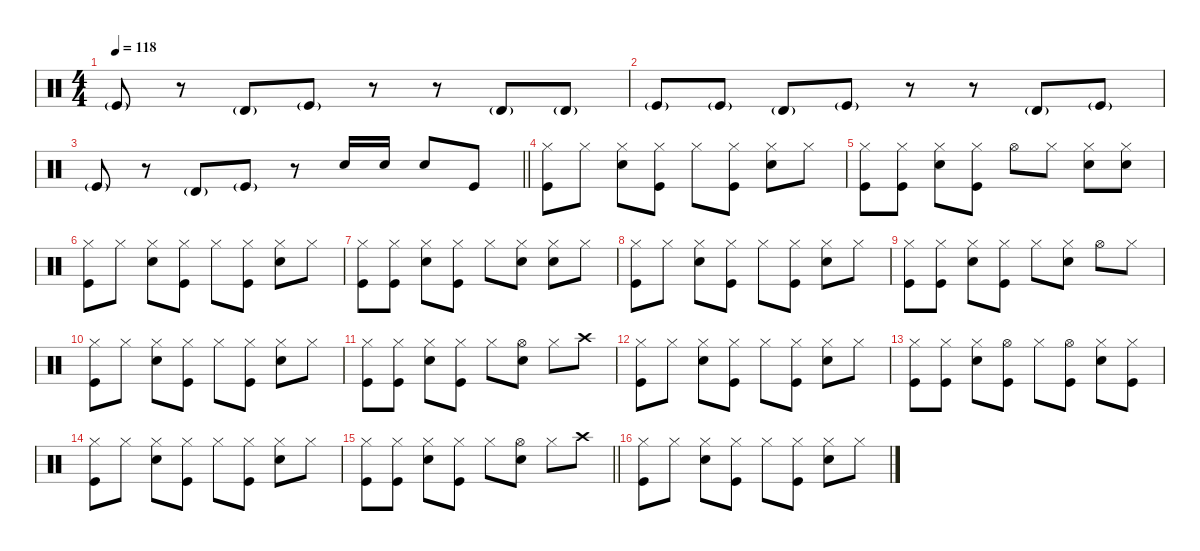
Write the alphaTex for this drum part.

\defaultSystemsLayout 4
\hideDynamics
\bracketExtendMode nobrackets
\singleTrackTrackNamePolicy hidden
\multiTrackTrackNamePolicy hidden
\firstSystemTrackNameMode fullname
\otherSystemsTrackNameOrientation horizontal
\track ("Drums" "drm.") {instrument percussion}
\staff {score}
\articulation defaults
\ts (4 4)
\tempo 118
\clef neutral
\ks c "Kick (hit)"{g}.8{dy mf beam Up}
r.8{beam Up} "Timbale high (hit)"{g}.8{beam Up} "Kick (hit)"{g}.8{beam Up} r.8{beam Up} r.8{beam Up} "Timbale high (hit)"{g}.8{beam Up} "Timbale high (hit)"{g}.8{beam Up} |
"Kick (hit)"{g}.8{beam Up} "Kick (hit)"{g}.8{beam Up} "Timbale high (hit)"{g}.8{beam Up} "Kick (hit)"{g}.8{beam Up} r.8{beam Up} r.8{beam Up} "Timbale high (hit)"{g}.8{beam Up} "Kick (hit)"{g}.8{beam Up} |
\barLineRight lightlight "Kick (hit)"{g}.8{beam Up}
r.8{beam Up} "Timbale high (hit)"{g}.8{beam Up} "Kick (hit)"{g}.8{beam Up} r.8{beam Up} "Snare (hit) 2".16{dy f beam Down} "Snare (hit) 2".16{beam Down} "Snare (hit) 2".8{beam Up} "Kick (hit)".8{beam Up} |
("Hi-Hat (closed)" "Kick (hit)").8{beam Down} "Hi-Hat (closed)".8{beam Down} ("Hi-Hat (closed)" "Snare (hit) 2").8{beam Down} ("Hi-Hat (closed)" "Kick (hit)").8{beam Down} "Hi-Hat (closed)".8{beam Down} ("Hi-Hat (closed)" "Kick (hit)").8{beam Down} ("Hi-Hat (closed)" "Snare (hit) 2").8{beam Down} "Hi-Hat (closed)".8{beam Down} |
("Hi-Hat (closed)" "Kick (hit)").8{beam Down} ("Hi-Hat (closed)" "Kick (hit)").8{beam Down} ("Hi-Hat (closed)" "Snare (hit) 2").8{beam Down} ("Hi-Hat (closed)" "Kick (hit)").8{beam Down} "Hi-Hat (open)".8{beam Down} "Hi-Hat (closed)".8{beam Down} ("Hi-Hat (closed)" "Snare (hit) 2").8{beam Down} ("Hi-Hat (closed)" "Snare (hit) 2").8{beam Down} |
("Hi-Hat (closed)" "Kick (hit)").8{beam Down} "Hi-Hat (closed)".8{beam Down} ("Hi-Hat (closed)" "Snare (hit) 2").8{beam Down} ("Hi-Hat (closed)" "Kick (hit)").8{beam Down} "Hi-Hat (closed)".8{beam Down} ("Hi-Hat (closed)" "Kick (hit)").8{beam Down} ("Hi-Hat (closed)" "Snare (hit) 2").8{beam Down} "Hi-Hat (closed)".8{beam Down} |
("Hi-Hat (closed)" "Kick (hit)").8{beam Down} ("Hi-Hat (closed)" "Kick (hit)").8{beam Down} ("Hi-Hat (closed)" "Snare (hit) 2").8{beam Down} ("Hi-Hat (closed)" "Kick (hit)").8{beam Down} "Hi-Hat (closed)".8{beam Down} ("Hi-Hat (closed)" "Snare (hit) 2").8{beam Down} ("Hi-Hat (closed)" "Snare (hit) 2").8{beam Down} "Hi-Hat (closed)".8{beam Down} |
("Hi-Hat (closed)" "Kick (hit)").8{beam Down} "Hi-Hat (closed)".8{beam Down} ("Hi-Hat (closed)" "Snare (hit) 2").8{beam Down} ("Hi-Hat (closed)" "Kick (hit)").8{beam Down} "Hi-Hat (closed)".8{beam Down} ("Hi-Hat (closed)" "Kick (hit)").8{beam Down} ("Hi-Hat (closed)" "Snare (hit) 2").8{beam Down} "Hi-Hat (closed)".8{beam Down} |
("Hi-Hat (closed)" "Kick (hit)").8{beam Down} ("Hi-Hat (closed)" "Kick (hit)").8{beam Down} ("Hi-Hat (closed)" "Snare (hit) 2").8{beam Down} ("Hi-Hat (closed)" "Kick (hit)").8{beam Down} "Hi-Hat (closed)".8{beam Down} ("Hi-Hat (closed)" "Snare (hit) 2").8{beam Down} "Hi-Hat (open)".8{beam Down} "Hi-Hat (closed)".8{beam Down} |
("Hi-Hat (closed)" "Kick (hit)").8{beam Down} "Hi-Hat (closed)".8{beam Down} ("Hi-Hat (closed)" "Snare (hit) 2").8{beam Down} ("Hi-Hat (closed)" "Kick (hit)").8{beam Down} "Hi-Hat (closed)".8{beam Down} ("Hi-Hat (closed)" "Kick (hit)").8{beam Down} ("Hi-Hat (closed)" "Snare (hit) 2").8{beam Down} "Hi-Hat (closed)".8{beam Down} |
("Hi-Hat (closed)" "Kick (hit)").8{beam Down} ("Hi-Hat (closed)" "Kick (hit)").8{beam Down} ("Hi-Hat (closed)" "Snare (hit) 2").8{beam Down} ("Hi-Hat (closed)" "Kick (hit)").8{beam Down} "Hi-Hat (closed)".8{beam Down} ("Hi-Hat (open)" "Snare (hit) 2").8{beam Down} "Hi-Hat (closed)".8{beam Down} "Crash high (hit)".8{beam Down} |
("Hi-Hat (closed)" "Kick (hit)").8{beam Down} "Hi-Hat (closed)".8{beam Down} ("Hi-Hat (closed)" "Snare (hit) 2").8{beam Down} ("Hi-Hat (closed)" "Kick (hit)").8{beam Down} "Hi-Hat (closed)".8{beam Down} ("Hi-Hat (closed)" "Kick (hit)").8{beam Down} ("Hi-Hat (closed)" "Snare (hit) 2").8{beam Down} "Hi-Hat (closed)".8{beam Down} |
("Hi-Hat (closed)" "Kick (hit)").8{beam Down} ("Hi-Hat (closed)" "Kick (hit)").8{beam Down} ("Hi-Hat (closed)" "Snare (hit) 2").8{beam Down} ("Hi-Hat (open)" "Kick (hit)").8{beam Down} "Hi-Hat (closed)".8{beam Down} ("Hi-Hat (open)" "Kick (hit)").8{beam Down} ("Hi-Hat (closed)" "Snare (hit) 2").8{beam Down} ("Hi-Hat (closed)" "Kick (hit)").8{beam Down} |
("Hi-Hat (closed)" "Kick (hit)").8{beam Down} "Hi-Hat (closed)".8{beam Down} ("Hi-Hat (closed)" "Snare (hit) 2").8{beam Down} ("Hi-Hat (closed)" "Kick (hit)").8{beam Down} "Hi-Hat (closed)".8{beam Down} ("Hi-Hat (closed)" "Kick (hit)").8{beam Down} ("Hi-Hat (closed)" "Snare (hit) 2").8{beam Down} "Hi-Hat (closed)".8{beam Down} |
\barLineRight lightlight
("Hi-Hat (closed)" "Kick (hit)").8{beam Down} ("Hi-Hat (closed)" "Kick (hit)").8{beam Down} ("Hi-Hat (closed)" "Snare (hit) 2").8{beam Down} ("Hi-Hat (closed)" "Kick (hit)").8{beam Down} "Hi-Hat (closed)".8{beam Down} ("Hi-Hat (open)" "Snare (hit) 2").8{beam Down} "Hi-Hat (closed)".8{beam Down} "Crash high (hit)".8{beam Down} |
("Hi-Hat (closed)" "Kick (hit)").8{beam Down} "Hi-Hat (closed)".8{beam Down} ("Hi-Hat (closed)" "Snare (hit) 2").8{beam Down} ("Hi-Hat (closed)" "Kick (hit)").8{beam Down} "Hi-Hat (closed)".8{beam Down} ("Hi-Hat (closed)" "Kick (hit)").8{beam Down} ("Hi-Hat (closed)" "Snare (hit) 2").8{beam Down} "Hi-Hat (closed)".8{beam Down}
